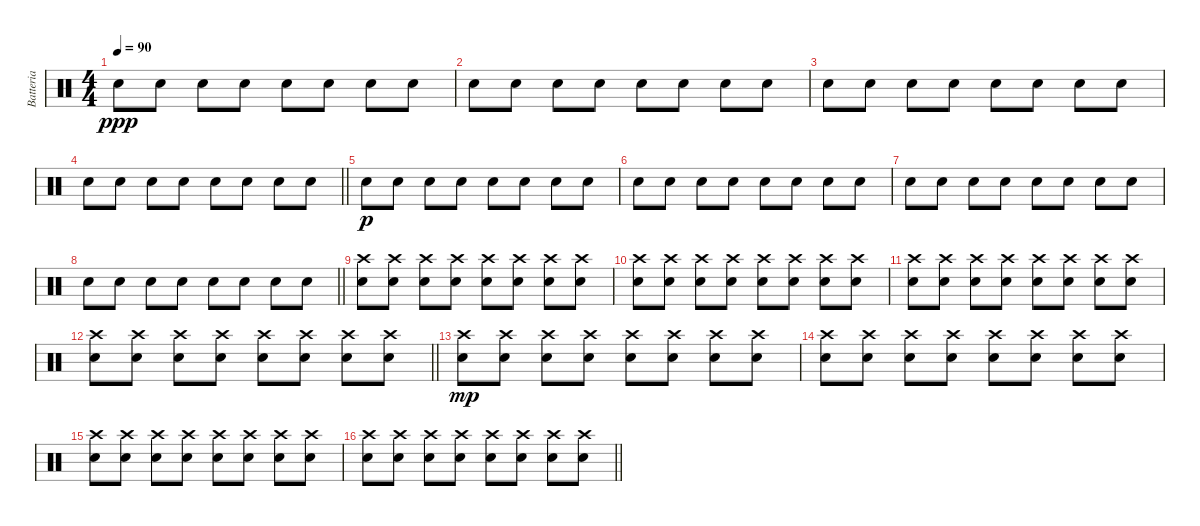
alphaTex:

\track ("Batteria" "Batteria") {instrument percussion}
\staff {score}
\articulation defaults
\ts (4 4)
\tempo 90
\clef neutral
\ks c "Snare (hit) 2".8{dy ppp} "Snare (hit) 2".8 "Snare (hit) 2".8 "Snare (hit) 2".8 "Snare (hit) 2".8 "Snare (hit) 2".8 "Snare (hit) 2".8 "Snare (hit) 2".8
|
"Snare (hit) 2".8 "Snare (hit) 2".8 "Snare (hit) 2".8 "Snare (hit) 2".8 "Snare (hit) 2".8 "Snare (hit) 2".8 "Snare (hit) 2".8 "Snare (hit) 2".8 |
"Snare (hit) 2".8 "Snare (hit) 2".8 "Snare (hit) 2".8 "Snare (hit) 2".8 "Snare (hit) 2".8 "Snare (hit) 2".8 "Snare (hit) 2".8 "Snare (hit) 2".8 |
\barLineRight lightlight "Snare (hit) 2".8 "Snare (hit) 2".8 "Snare (hit) 2".8 "Snare (hit) 2".8 "Snare (hit) 2".8 "Snare (hit) 2".8 "Snare (hit) 2".8 "Snare (hit) 2".8
|
"Snare (hit) 2".8{dy p} "Snare (hit) 2".8 "Snare (hit) 2".8 "Snare (hit) 2".8 "Snare (hit) 2".8 "Snare (hit) 2".8 "Snare (hit) 2".8 "Snare (hit) 2".8 |
"Snare (hit) 2".8 "Snare (hit) 2".8 "Snare (hit) 2".8 "Snare (hit) 2".8 "Snare (hit) 2".8 "Snare (hit) 2".8 "Snare (hit) 2".8 "Snare (hit) 2".8 |
"Snare (hit) 2".8 "Snare (hit) 2".8 "Snare (hit) 2".8 "Snare (hit) 2".8 "Snare (hit) 2".8 "Snare (hit) 2".8 "Snare (hit) 2".8 "Snare (hit) 2".8 |
\barLineRight lightlight "Snare (hit) 2".8 "Snare (hit) 2".8 "Snare (hit) 2".8 "Snare (hit) 2".8 "Snare (hit) 2".8 "Snare (hit) 2".8 "Snare (hit) 2".8 "Snare (hit) 2".8
|
("Snare (hit) 2" "Crash high (hit)").8 ("Snare (hit) 2" "Crash high (hit)").8 ("Snare (hit) 2" "Crash high (hit)").8 ("Snare (hit) 2" "Crash high (hit)").8 ("Snare (hit) 2" "Crash high (hit)").8 ("Snare (hit) 2" "Crash high (hit)").8 ("Snare (hit) 2" "Crash high (hit)").8 ("Snare (hit) 2" "Crash high (hit)").8 |
("Snare (hit) 2" "Crash high (hit)").8 ("Snare (hit) 2" "Crash high (hit)").8 ("Snare (hit) 2" "Crash high (hit)").8 ("Snare (hit) 2" "Crash high (hit)").8 ("Snare (hit) 2" "Crash high (hit)").8 ("Snare (hit) 2" "Crash high (hit)").8 ("Snare (hit) 2" "Crash high (hit)").8 ("Snare (hit) 2" "Crash high (hit)").8 |
("Snare (hit) 2" "Crash high (hit)").8 ("Snare (hit) 2" "Crash high (hit)").8 ("Snare (hit) 2" "Crash high (hit)").8 ("Snare (hit) 2" "Crash high (hit)").8 ("Snare (hit) 2" "Crash high (hit)").8 ("Snare (hit) 2" "Crash high (hit)").8 ("Snare (hit) 2" "Crash high (hit)").8 ("Snare (hit) 2" "Crash high (hit)").8 |
\barLineRight lightlight
("Snare (hit) 2" "Crash high (hit)").8 ("Snare (hit) 2" "Crash high (hit)").8 ("Snare (hit) 2" "Crash high (hit)").8 ("Snare (hit) 2" "Crash high (hit)").8 ("Snare (hit) 2" "Crash high (hit)").8 ("Snare (hit) 2" "Crash high (hit)").8 ("Snare (hit) 2" "Crash high (hit)").8 ("Snare (hit) 2" "Crash high (hit)").8 |
("Snare (hit) 2" "Crash high (hit)").8{dy mp} ("Snare (hit) 2" "Crash high (hit)").8 ("Snare (hit) 2" "Crash high (hit)").8 ("Snare (hit) 2" "Crash high (hit)").8 ("Snare (hit) 2" "Crash high (hit)").8 ("Snare (hit) 2" "Crash high (hit)").8 ("Snare (hit) 2" "Crash high (hit)").8 ("Snare (hit) 2" "Crash high (hit)").8 |
("Snare (hit) 2" "Crash high (hit)").8 ("Snare (hit) 2" "Crash high (hit)").8 ("Snare (hit) 2" "Crash high (hit)").8 ("Snare (hit) 2" "Crash high (hit)").8 ("Snare (hit) 2" "Crash high (hit)").8 ("Snare (hit) 2" "Crash high (hit)").8 ("Snare (hit) 2" "Crash high (hit)").8 ("Snare (hit) 2" "Crash high (hit)").8 |
("Snare (hit) 2" "Crash high (hit)").8 ("Snare (hit) 2" "Crash high (hit)").8 ("Snare (hit) 2" "Crash high (hit)").8 ("Snare (hit) 2" "Crash high (hit)").8 ("Snare (hit) 2" "Crash high (hit)").8 ("Snare (hit) 2" "Crash high (hit)").8 ("Snare (hit) 2" "Crash high (hit)").8 ("Snare (hit) 2" "Crash high (hit)").8 |
\barLineRight lightlight
("Snare (hit) 2" "Crash high (hit)").8 ("Snare (hit) 2" "Crash high (hit)").8 ("Snare (hit) 2" "Crash high (hit)").8 ("Snare (hit) 2" "Crash high (hit)").8 ("Snare (hit) 2" "Crash high (hit)").8 ("Snare (hit) 2" "Crash high (hit)").8 ("Snare (hit) 2" "Crash high (hit)").8 ("Snare (hit) 2" "Crash high (hit)").8
